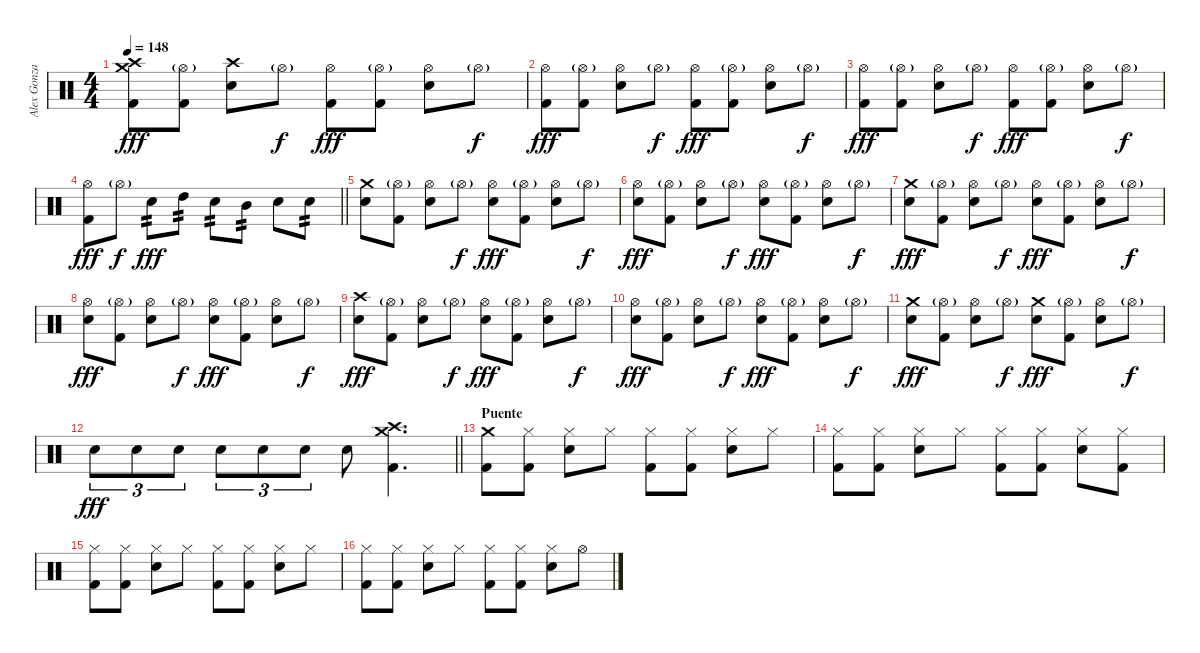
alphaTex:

\track ("Alex Gonzalez" "Alex Gonza") {instrument percussion}
\staff {score}
\articulation defaults
\ts (4 4)
\tempo 148
\clef neutral
\ks c
("Crash medium (hit)" "Crash high (hit)" "Kick (hit) 2").8{dy fff} ("Hi-Hat (open)"{g} "Kick (hit) 2").8 ("Crash high (hit)" "Snare (hit) 2").8 "Hi-Hat (open)"{g}.8{dy f} ("Hi-Hat (open)" "Kick (hit) 2").8{dy fff} ("Hi-Hat (open)"{g} "Kick (hit) 2").8 ("Hi-Hat (open)" "Snare (hit) 2").8 "Hi-Hat (open)"{g}.8{dy f} |
("Hi-Hat (open)" "Kick (hit) 2").8{dy fff} ("Hi-Hat (open)"{g} "Kick (hit) 2").8 ("Hi-Hat (open)" "Snare (hit) 2").8 "Hi-Hat (open)"{g}.8{dy f} ("Hi-Hat (open)" "Kick (hit) 2").8{dy fff} ("Hi-Hat (open)"{g} "Kick (hit) 2").8 ("Hi-Hat (open)" "Snare (hit) 2").8 "Hi-Hat (open)"{g}.8{dy f} |
("Hi-Hat (open)" "Kick (hit) 2").8{dy fff} ("Hi-Hat (open)"{g} "Kick (hit) 2").8 ("Hi-Hat (open)" "Snare (hit) 2").8 "Hi-Hat (open)"{g}.8{dy f} ("Hi-Hat (open)" "Kick (hit) 2").8{dy fff} ("Hi-Hat (open)"{g} "Kick (hit) 2").8 ("Hi-Hat (open)" "Snare (hit) 2").8 "Hi-Hat (open)"{g}.8{dy f} |
\barLineRight lightlight
("Hi-Hat (open)" "Kick (hit) 2").8{dy fff} "Hi-Hat (open)"{g}.8{dy f} "Snare (hit) 2".8{tp 2 dy fff} "High Tom (hit)".8{tp 2} "Snare (hit) 2".8{tp 2} "Mid Tom (hit)".8{tp 2} "Snare (hit) 2".8 "Snare (hit) 2".8{tp 2} |
("Crash medium (hit)" "Snare (hit) 2").8 ("Hi-Hat (open)"{g} "Kick (hit) 2").8 ("Hi-Hat (open)" "Snare (hit) 2").8 "Hi-Hat (open)"{g}.8{dy f} ("Hi-Hat (open)" "Snare (hit) 2").8{dy fff} ("Hi-Hat (open)"{g} "Kick (hit) 2").8 ("Hi-Hat (open)" "Snare (hit) 2").8 "Hi-Hat (open)"{g}.8{dy f} |
("Hi-Hat (open)" "Snare (hit) 2").8{dy fff} ("Hi-Hat (open)"{g} "Kick (hit) 2").8 ("Hi-Hat (open)" "Snare (hit) 2").8 "Hi-Hat (open)"{g}.8{dy f} ("Hi-Hat (open)" "Snare (hit) 2").8{dy fff} ("Hi-Hat (open)"{g} "Kick (hit) 2").8 ("Hi-Hat (open)" "Snare (hit) 2").8 "Hi-Hat (open)"{g}.8{dy f} |
("Crash medium (hit)" "Snare (hit) 2").8{dy fff} ("Hi-Hat (open)"{g} "Kick (hit) 2").8 ("Hi-Hat (open)" "Snare (hit) 2").8 "Hi-Hat (open)"{g}.8{dy f} ("Hi-Hat (open)" "Snare (hit) 2").8{dy fff} ("Hi-Hat (open)"{g} "Kick (hit) 2").8 ("Hi-Hat (open)" "Snare (hit) 2").8 "Hi-Hat (open)"{g}.8{dy f} |
("Hi-Hat (open)" "Snare (hit) 2").8{dy fff} ("Hi-Hat (open)"{g} "Kick (hit) 2").8 ("Hi-Hat (open)" "Snare (hit) 2").8 "Hi-Hat (open)"{g}.8{dy f} ("Hi-Hat (open)" "Snare (hit) 2").8{dy fff} ("Hi-Hat (open)"{g} "Kick (hit) 2").8 ("Hi-Hat (open)" "Snare (hit) 2").8 "Hi-Hat (open)"{g}.8{dy f} |
("Crash high (hit)" "Snare (hit) 2").8{dy fff} ("Hi-Hat (open)"{g} "Kick (hit) 2").8 ("Hi-Hat (open)" "Snare (hit) 2").8 "Hi-Hat (open)"{g}.8{dy f} ("Hi-Hat (open)" "Snare (hit) 2").8{dy fff} ("Hi-Hat (open)"{g} "Kick (hit) 2").8 ("Hi-Hat (open)" "Snare (hit) 2").8 "Hi-Hat (open)"{g}.8{dy f} |
("Hi-Hat (open)" "Snare (hit) 2").8{dy fff} ("Hi-Hat (open)"{g} "Kick (hit) 2").8 ("Hi-Hat (open)" "Snare (hit) 2").8 "Hi-Hat (open)"{g}.8{dy f} ("Hi-Hat (open)" "Snare (hit) 2").8{dy fff} ("Hi-Hat (open)"{g} "Kick (hit) 2").8 ("Hi-Hat (open)" "Snare (hit) 2").8 "Hi-Hat (open)"{g}.8{dy f} |
("Crash medium (hit)" "Snare (hit) 2").8{dy fff} ("Hi-Hat (open)"{g} "Kick (hit) 2").8 ("Hi-Hat (open)" "Snare (hit) 2").8 "Hi-Hat (open)"{g}.8{dy f} ("Crash medium (hit)" "Snare (hit) 2").8{dy fff} ("Hi-Hat (open)"{g} "Kick (hit) 2").8 ("Hi-Hat (open)" "Snare (hit) 2").8 "Hi-Hat (open)"{g}.8{dy f} |
\barLineRight lightlight "Snare (hit) 2".8{tu (3 2) dy fff} "Snare (hit) 2".8{tu (3 2)} "Snare (hit) 2".8{tu (3 2)} "Snare (hit) 2".8{tu (3 2)} "Snare (hit) 2".8{tu (3 2)} "Snare (hit) 2".8{tu (3 2)} "Snare (hit) 2".8
("Crash medium (hit)" "Crash high (hit)" "Kick (hit) 2").4{d} |
\section ("" "Puente")
("Crash medium (hit)" "Kick (hit) 2").8 ("Hi-Hat (closed)" "Kick (hit) 2").8 ("Hi-Hat (closed)" "Snare (hit) 2").8 "Hi-Hat (closed)".8 ("Hi-Hat (closed)" "Kick (hit) 2").8 ("Hi-Hat (closed)" "Kick (hit) 2").8 ("Hi-Hat (closed)" "Snare (hit) 2").8 "Hi-Hat (closed)".8 |
("Hi-Hat (closed)" "Kick (hit) 2").8 ("Hi-Hat (closed)" "Kick (hit) 2").8 ("Hi-Hat (closed)" "Snare (hit) 2").8 "Hi-Hat (closed)".8 ("Hi-Hat (closed)" "Kick (hit) 2").8 ("Hi-Hat (closed)" "Kick (hit) 2").8 ("Hi-Hat (closed)" "Snare (hit) 2").8 ("Hi-Hat (closed)" "Kick (hit) 2").8 |
("Hi-Hat (closed)" "Kick (hit) 2").8 ("Hi-Hat (closed)" "Kick (hit) 2").8 ("Hi-Hat (closed)" "Snare (hit) 2").8 "Hi-Hat (closed)".8 ("Hi-Hat (closed)" "Kick (hit) 2").8 ("Hi-Hat (closed)" "Kick (hit) 2").8 ("Hi-Hat (closed)" "Snare (hit) 2").8 "Hi-Hat (closed)".8 |
("Hi-Hat (closed)" "Kick (hit) 2").8 ("Hi-Hat (closed)" "Kick (hit) 2").8 ("Hi-Hat (closed)" "Snare (hit) 2").8 "Hi-Hat (closed)".8 ("Hi-Hat (closed)" "Kick (hit) 2").8 ("Hi-Hat (closed)" "Kick (hit) 2").8 ("Hi-Hat (closed)" "Snare (hit) 2").8 "Hi-Hat (open)".8
